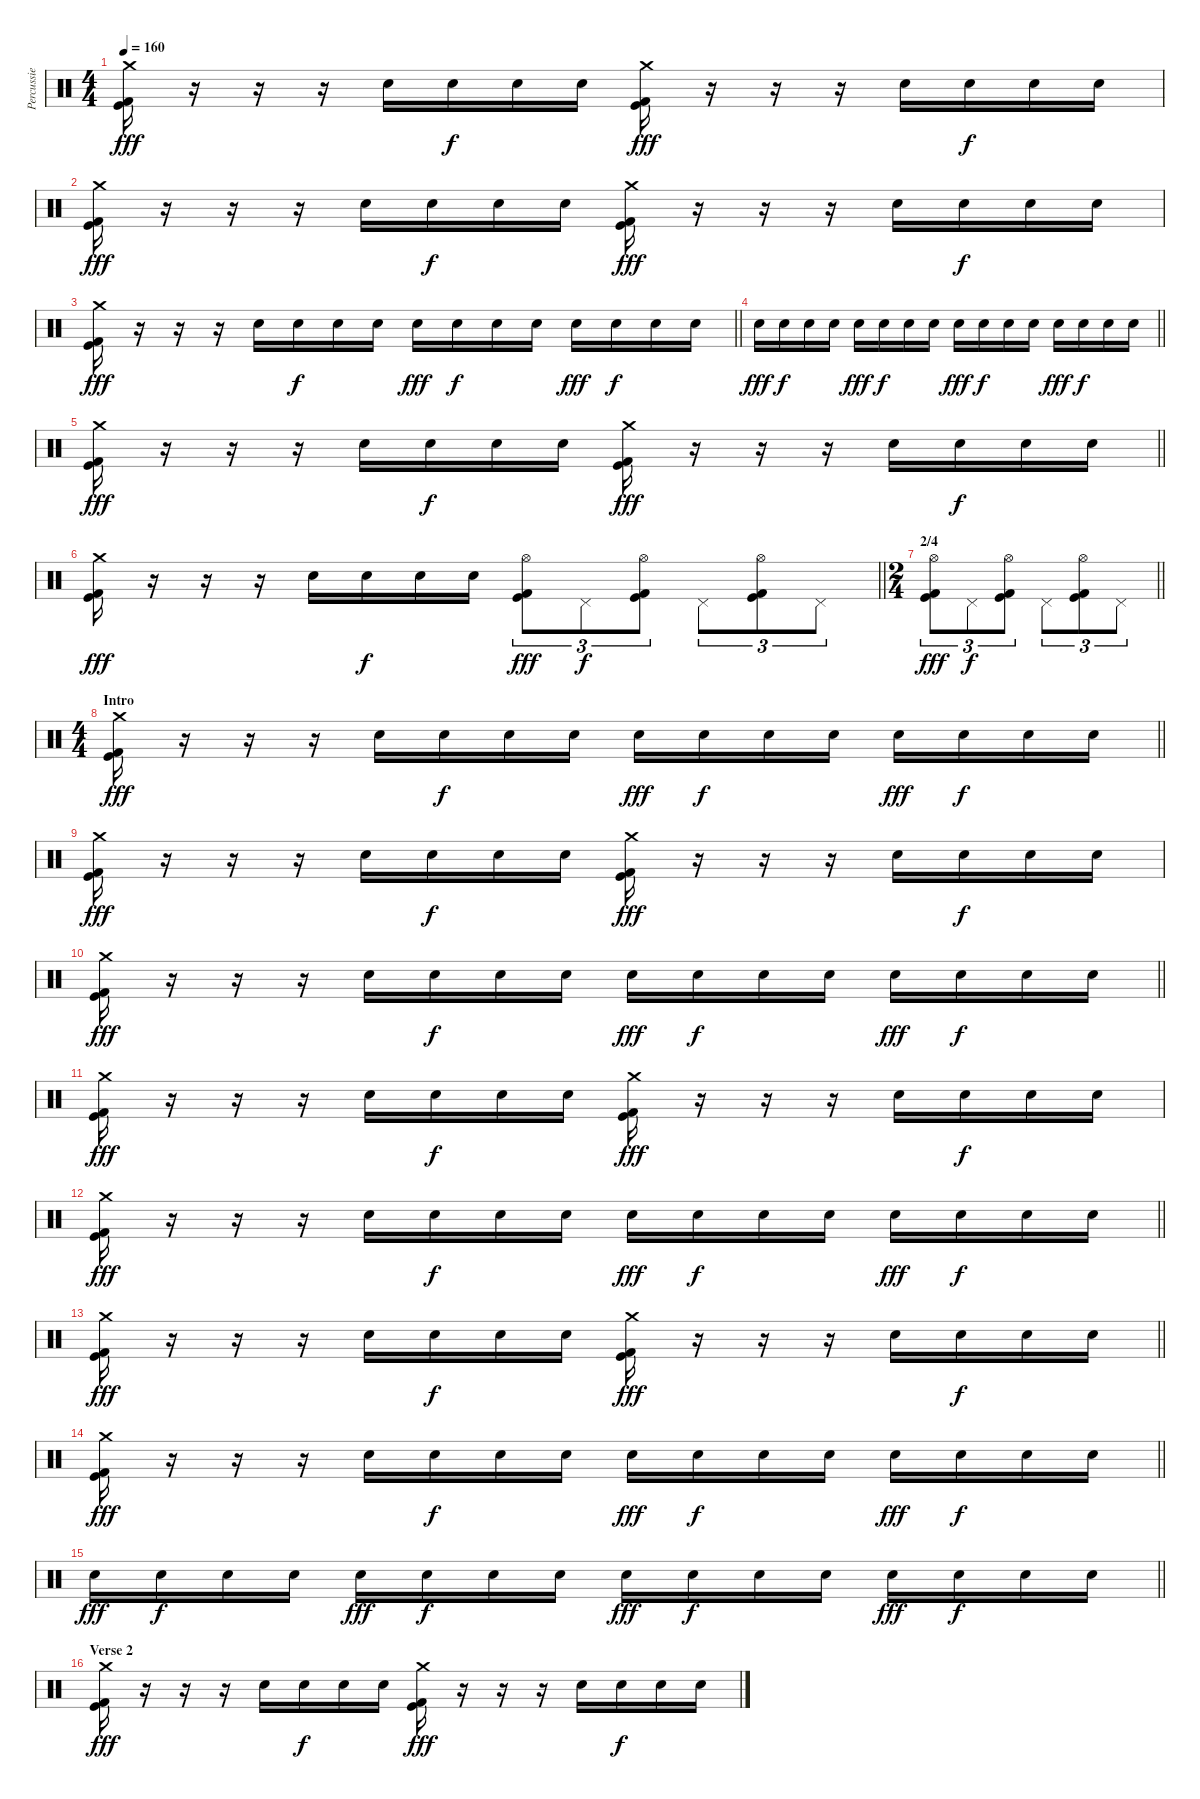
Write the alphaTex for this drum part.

\track ("Percussie" "Percussie") {instrument percussion}
\staff {score}
\articulation defaults
\ts (4 4)
\tempo 160
\clef neutral
\ks c
("Crash medium (hit)" "Kick (hit)" "Kick (hit) 2").16{dy fff} r.16 r.16 r.16 "Snare (hit) 2".16 "Snare (hit) 2".16{dy f} "Snare (hit) 2".16 "Snare (hit) 2".16 ("Crash medium (hit)" "Kick (hit)" "Kick (hit) 2").16{dy fff} r.16 r.16 r.16 "Snare (hit) 2".16 "Snare (hit) 2".16{dy f} "Snare (hit) 2".16 "Snare (hit) 2".16 |
("Crash medium (hit)" "Kick (hit)" "Kick (hit) 2").16{dy fff} r.16 r.16 r.16 "Snare (hit) 2".16 "Snare (hit) 2".16{dy f} "Snare (hit) 2".16 "Snare (hit) 2".16 ("Crash medium (hit)" "Kick (hit)" "Kick (hit) 2").16{dy fff} r.16 r.16 r.16 "Snare (hit) 2".16 "Snare (hit) 2".16{dy f} "Snare (hit) 2".16 "Snare (hit) 2".16 |
\barLineRight lightlight
("Crash medium (hit)" "Kick (hit)" "Kick (hit) 2").16{dy fff} r.16 r.16 r.16 "Snare (hit) 2".16 "Snare (hit) 2".16{dy f} "Snare (hit) 2".16 "Snare (hit) 2".16 "Snare (hit) 2".16{dy fff} "Snare (hit) 2".16{dy f} "Snare (hit) 2".16 "Snare (hit) 2".16 "Snare (hit) 2".16{dy fff} "Snare (hit) 2".16{dy f} "Snare (hit) 2".16 "Snare (hit) 2".16 |
\barLineRight lightlight "Snare (hit) 2".16{dy fff} "Snare (hit) 2".16{dy f} "Snare (hit) 2".16 "Snare (hit) 2".16 "Snare (hit) 2".16{dy fff} "Snare (hit) 2".16{dy f} "Snare (hit) 2".16 "Snare (hit) 2".16 "Snare (hit) 2".16{dy fff} "Snare (hit) 2".16{dy f} "Snare (hit) 2".16 "Snare (hit) 2".16 "Snare (hit) 2".16{dy fff} "Snare (hit) 2".16{dy f} "Snare (hit) 2".16 "Snare (hit) 2".16
|
\barLineRight lightlight
("Crash medium (hit)" "Kick (hit)" "Kick (hit) 2").16{dy fff} r.16 r.16 r.16 "Snare (hit) 2".16 "Snare (hit) 2".16{dy f} "Snare (hit) 2".16 "Snare (hit) 2".16 ("Crash medium (hit)" "Kick (hit)" "Kick (hit) 2").16{dy fff} r.16 r.16 r.16 "Snare (hit) 2".16 "Snare (hit) 2".16{dy f} "Snare (hit) 2".16 "Snare (hit) 2".16 |
\section ("" "")
\barLineRight lightlight
("Crash medium (hit)" "Kick (hit)" "Kick (hit) 2").16{dy fff} r.16 r.16 r.16 "Snare (hit) 2".16 "Snare (hit) 2".16{dy f} "Snare (hit) 2".16 "Snare (hit) 2".16 ("Hi-Hat (open)" "Kick (hit)" "Kick (hit) 2").8{tu (3 2) dy fff} "Pedal Hi-Hat (hit)".8{tu (3 2) dy f} ("Hi-Hat (open)" "Kick (hit)" "Kick (hit) 2").8{tu (3 2)} "Pedal Hi-Hat (hit)".8{tu (3 2)} ("Hi-Hat (open)" "Kick (hit)" "Kick (hit) 2").8{tu (3 2)} "Pedal Hi-Hat (hit)".8{tu (3 2)} |
\ts (2 4)
\section ("" "2/4")
\barLineRight lightlight
("Hi-Hat (open)" "Kick (hit)" "Kick (hit) 2").8{tu (3 2) dy fff} "Pedal Hi-Hat (hit)".8{tu (3 2) dy f} ("Hi-Hat (open)" "Kick (hit)" "Kick (hit) 2").8{tu (3 2)} "Pedal Hi-Hat (hit)".8{tu (3 2)} ("Hi-Hat (open)" "Kick (hit)" "Kick (hit) 2").8{tu (3 2)} "Pedal Hi-Hat (hit)".8{tu (3 2)} |
\ts (4 4)
\section ("" "Intro")
\barLineRight lightlight
("Crash medium (hit)" "Kick (hit)" "Kick (hit) 2").16{dy fff} r.16 r.16 r.16 "Snare (hit) 2".16 "Snare (hit) 2".16{dy f} "Snare (hit) 2".16 "Snare (hit) 2".16 "Snare (hit) 2".16{dy fff} "Snare (hit) 2".16{dy f} "Snare (hit) 2".16 "Snare (hit) 2".16 "Snare (hit) 2".16{dy fff} "Snare (hit) 2".16{dy f} "Snare (hit) 2".16 "Snare (hit) 2".16 |
("Crash medium (hit)" "Kick (hit)" "Kick (hit) 2").16{dy fff} r.16 r.16 r.16 "Snare (hit) 2".16 "Snare (hit) 2".16{dy f} "Snare (hit) 2".16 "Snare (hit) 2".16 ("Crash medium (hit)" "Kick (hit)" "Kick (hit) 2").16{dy fff} r.16 r.16 r.16 "Snare (hit) 2".16 "Snare (hit) 2".16{dy f} "Snare (hit) 2".16 "Snare (hit) 2".16 |
\barLineRight lightlight
("Crash medium (hit)" "Kick (hit)" "Kick (hit) 2").16{dy fff} r.16 r.16 r.16 "Snare (hit) 2".16 "Snare (hit) 2".16{dy f} "Snare (hit) 2".16 "Snare (hit) 2".16 "Snare (hit) 2".16{dy fff} "Snare (hit) 2".16{dy f} "Snare (hit) 2".16 "Snare (hit) 2".16 "Snare (hit) 2".16{dy fff} "Snare (hit) 2".16{dy f} "Snare (hit) 2".16 "Snare (hit) 2".16 |
("Crash medium (hit)" "Kick (hit)" "Kick (hit) 2").16{dy fff} r.16 r.16 r.16 "Snare (hit) 2".16 "Snare (hit) 2".16{dy f} "Snare (hit) 2".16 "Snare (hit) 2".16 ("Crash medium (hit)" "Kick (hit)" "Kick (hit) 2").16{dy fff} r.16 r.16 r.16 "Snare (hit) 2".16 "Snare (hit) 2".16{dy f} "Snare (hit) 2".16 "Snare (hit) 2".16 |
\barLineRight lightlight
("Crash medium (hit)" "Kick (hit)" "Kick (hit) 2").16{dy fff} r.16 r.16 r.16 "Snare (hit) 2".16 "Snare (hit) 2".16{dy f} "Snare (hit) 2".16 "Snare (hit) 2".16 "Snare (hit) 2".16{dy fff} "Snare (hit) 2".16{dy f} "Snare (hit) 2".16 "Snare (hit) 2".16 "Snare (hit) 2".16{dy fff} "Snare (hit) 2".16{dy f} "Snare (hit) 2".16 "Snare (hit) 2".16 |
\barLineRight lightlight
("Crash medium (hit)" "Kick (hit)" "Kick (hit) 2").16{dy fff} r.16 r.16 r.16 "Snare (hit) 2".16 "Snare (hit) 2".16{dy f} "Snare (hit) 2".16 "Snare (hit) 2".16 ("Crash medium (hit)" "Kick (hit)" "Kick (hit) 2").16{dy fff} r.16 r.16 r.16 "Snare (hit) 2".16 "Snare (hit) 2".16{dy f} "Snare (hit) 2".16 "Snare (hit) 2".16 |
\barLineRight lightlight
("Crash medium (hit)" "Kick (hit)" "Kick (hit) 2").16{dy fff} r.16 r.16 r.16 "Snare (hit) 2".16 "Snare (hit) 2".16{dy f} "Snare (hit) 2".16 "Snare (hit) 2".16 "Snare (hit) 2".16{dy fff} "Snare (hit) 2".16{dy f} "Snare (hit) 2".16 "Snare (hit) 2".16 "Snare (hit) 2".16{dy fff} "Snare (hit) 2".16{dy f} "Snare (hit) 2".16 "Snare (hit) 2".16 |
\barLineRight lightlight "Snare (hit) 2".16{dy fff} "Snare (hit) 2".16{dy f} "Snare (hit) 2".16 "Snare (hit) 2".16 "Snare (hit) 2".16{dy fff} "Snare (hit) 2".16{dy f} "Snare (hit) 2".16 "Snare (hit) 2".16 "Snare (hit) 2".16{dy fff} "Snare (hit) 2".16{dy f} "Snare (hit) 2".16 "Snare (hit) 2".16 "Snare (hit) 2".16{dy fff} "Snare (hit) 2".16{dy f} "Snare (hit) 2".16 "Snare (hit) 2".16
|
\section ("" "Verse 2")
("Crash medium (hit)" "Kick (hit)" "Kick (hit) 2").16{dy fff} r.16 r.16 r.16 "Snare (hit) 2".16 "Snare (hit) 2".16{dy f} "Snare (hit) 2".16 "Snare (hit) 2".16 ("Crash medium (hit)" "Kick (hit)" "Kick (hit) 2").16{dy fff} r.16 r.16 r.16 "Snare (hit) 2".16 "Snare (hit) 2".16{dy f} "Snare (hit) 2".16 "Snare (hit) 2".16
